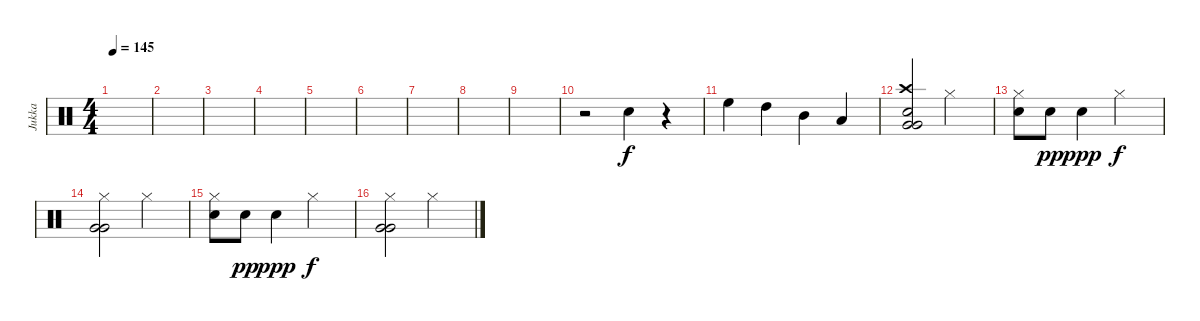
\track ("Jukka" "Jukka") {instrument percussion}
\staff {score}
\articulation defaults
\ts (4 4)
\tempo 145
\clef neutral
\ks c
|
|
|
|
|
|
|
|
|
r.2 "Electric Snare (hit)".4 r.4 |
"High Floor Tom (hit)".4 "High Tom (hit)".4 "Mid Tom (hit)".4 "Low Tom (hit)".4 |
("Crash high (hit)" "Electric Snare (hit)" "Very Low Tom (hit)" "Very Low Tom (hit)").2 "Hi-Hat (closed)".2 |
("Hi-Hat (closed)" "Electric Snare (hit)").8 "Electric Snare (hit)".8{dy pp} "Electric Snare (hit)".4{dy ppp} "Hi-Hat (closed)".2{dy f} |
("Hi-Hat (closed)" "Very Low Tom (hit)" "Very Low Tom (hit)").2 "Hi-Hat (closed)".2 |
("Hi-Hat (closed)" "Electric Snare (hit)").8 "Electric Snare (hit)".8{dy pp} "Electric Snare (hit)".4{dy ppp} "Hi-Hat (closed)".2{dy f} |
("Hi-Hat (closed)" "Very Low Tom (hit)" "Very Low Tom (hit)").2 "Hi-Hat (closed)".2
